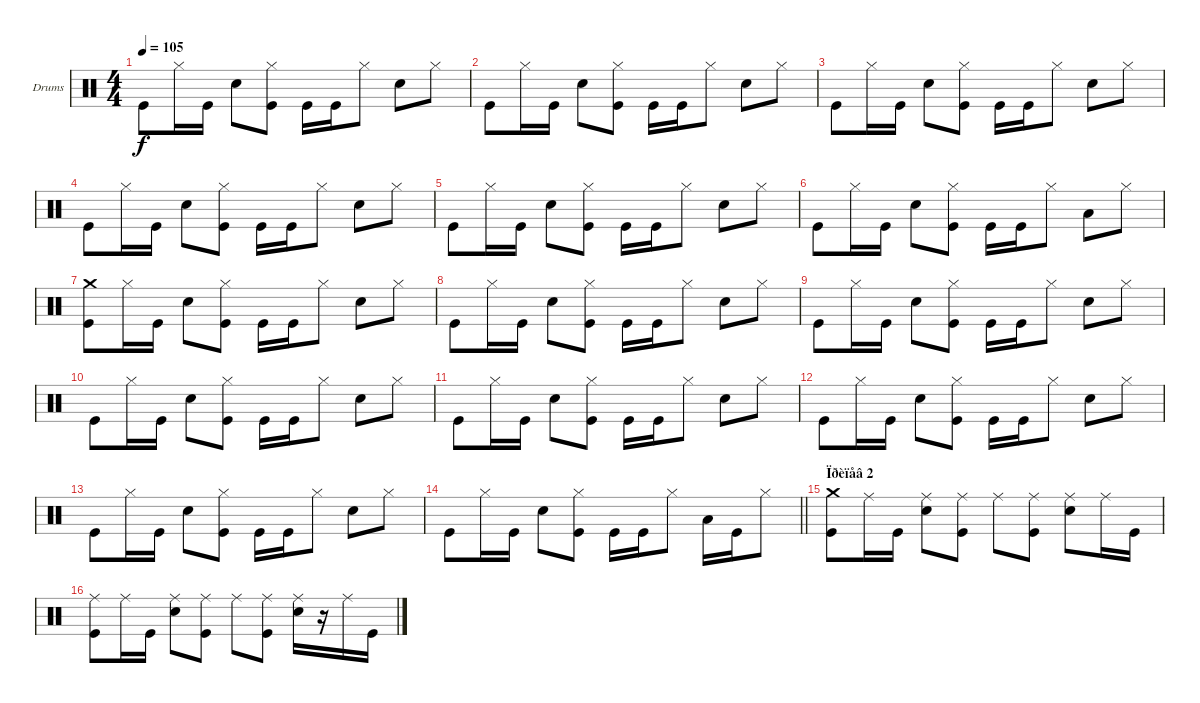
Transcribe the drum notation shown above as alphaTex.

\bracketExtendMode groupsimilarinstruments
\firstSystemTrackNameOrientation horizontal
\otherSystemsTrackNameOrientation horizontal
\track ("Drumkit" "Drums") {instrument percussion}
\staff {score}
\articulation defaults
\ts (4 4)
\tempo 105
\clef neutral
\ks c "Kick (hit)".8{dy f} "Hi-Hat (closed)".16 "Kick (hit)".16 "Snare (hit) 2".8
("Kick (hit)" "Hi-Hat (closed)").8 "Kick (hit)".16 "Kick (hit)".16 "Hi-Hat (closed)".8 "Snare (hit) 2".8 "Hi-Hat (closed)".8 |
"Kick (hit)".8 "Hi-Hat (closed)".16 "Kick (hit)".16 "Snare (hit) 2".8 ("Kick (hit)" "Hi-Hat (closed)").8 "Kick (hit)".16 "Kick (hit)".16 "Hi-Hat (closed)".8 "Snare (hit) 2".8 "Hi-Hat (closed)".8 |
"Kick (hit)".8 "Hi-Hat (closed)".16 "Kick (hit)".16 "Snare (hit) 2".8 ("Kick (hit)" "Hi-Hat (closed)").8 "Kick (hit)".16 "Kick (hit)".16 "Hi-Hat (closed)".8 "Snare (hit) 2".8 "Hi-Hat (closed)".8 |
"Kick (hit)".8 "Hi-Hat (closed)".16 "Kick (hit)".16 "Snare (hit) 2".8 ("Kick (hit)" "Hi-Hat (closed)").8 "Kick (hit)".16 "Kick (hit)".16 "Hi-Hat (closed)".8 "Snare (hit) 2".8 "Hi-Hat (closed)".8 |
"Kick (hit)".8 "Hi-Hat (closed)".16 "Kick (hit)".16 "Snare (hit) 2".8 ("Kick (hit)" "Hi-Hat (closed)").8 "Kick (hit)".16 "Kick (hit)".16 "Hi-Hat (closed)".8 "Snare (hit) 2".8 "Hi-Hat (closed)".8 |
"Kick (hit)".8 "Hi-Hat (closed)".16 "Kick (hit)".16 "Snare (hit) 2".8 ("Kick (hit)" "Hi-Hat (closed)").8 "Kick (hit)".16 "Kick (hit)".16 "Hi-Hat (closed)".8 "Low Tom (hit)".8 "Hi-Hat (closed)".8 |
("Kick (hit)" "Crash medium (hit)").8 "Hi-Hat (closed)".16 "Kick (hit)".16 "Snare (hit) 2".8 ("Kick (hit)" "Hi-Hat (closed)").8 "Kick (hit)".16 "Kick (hit)".16 "Hi-Hat (closed)".8 "Snare (hit) 2".8 "Hi-Hat (closed)".8 |
"Kick (hit)".8 "Hi-Hat (closed)".16 "Kick (hit)".16 "Snare (hit) 2".8 ("Kick (hit)" "Hi-Hat (closed)").8 "Kick (hit)".16 "Kick (hit)".16 "Hi-Hat (closed)".8 "Snare (hit) 2".8 "Hi-Hat (closed)".8 |
"Kick (hit)".8 "Hi-Hat (closed)".16 "Kick (hit)".16 "Snare (hit) 2".8 ("Kick (hit)" "Hi-Hat (closed)").8 "Kick (hit)".16 "Kick (hit)".16 "Hi-Hat (closed)".8 "Snare (hit) 2".8 "Hi-Hat (closed)".8 |
"Kick (hit)".8 "Hi-Hat (closed)".16 "Kick (hit)".16 "Snare (hit) 2".8 ("Kick (hit)" "Hi-Hat (closed)").8 "Kick (hit)".16 "Kick (hit)".16 "Hi-Hat (closed)".8 "Snare (hit) 2".8 "Hi-Hat (closed)".8 |
"Kick (hit)".8 "Hi-Hat (closed)".16 "Kick (hit)".16 "Snare (hit) 2".8 ("Kick (hit)" "Hi-Hat (closed)").8 "Kick (hit)".16 "Kick (hit)".16 "Hi-Hat (closed)".8 "Snare (hit) 2".8 "Hi-Hat (closed)".8 |
"Kick (hit)".8 "Hi-Hat (closed)".16 "Kick (hit)".16 "Snare (hit) 2".8 ("Kick (hit)" "Hi-Hat (closed)").8 "Kick (hit)".16 "Kick (hit)".16 "Hi-Hat (closed)".8 "Snare (hit) 2".8 "Hi-Hat (closed)".8 |
"Kick (hit)".8 "Hi-Hat (closed)".16 "Kick (hit)".16 "Snare (hit) 2".8 ("Kick (hit)" "Hi-Hat (closed)").8 "Kick (hit)".16 "Kick (hit)".16 "Hi-Hat (closed)".8 "Snare (hit) 2".8 "Hi-Hat (closed)".8 |
\barLineRight lightlight "Kick (hit)".8 "Hi-Hat (closed)".16 "Kick (hit)".16 "Snare (hit) 2".8
("Kick (hit)" "Hi-Hat (closed)").8 "Kick (hit)".16 "Kick (hit)".16 "Hi-Hat (closed)".8 "Low Tom (hit)".16 "Kick (hit)".16 "Hi-Hat (closed)".8 |
\section ("" "Ïðèïåâ 2")
("Kick (hit)" "Crash medium (hit)").8 "Ride (middle)".16 "Kick (hit)".16 ("Snare (hit) 2" "Ride (middle)").8 ("Kick (hit)" "Ride (middle)").8 "Ride (middle)".8 ("Kick (hit)" "Ride (middle)").8 ("Snare (hit) 2" "Ride (middle)").8 "Ride (middle)".16 "Kick (hit)".16 |
("Kick (hit)" "Ride (middle)").8 "Ride (middle)".16 "Kick (hit)".16 ("Snare (hit) 2" "Ride (middle)").8 ("Kick (hit)" "Ride (middle)").8 "Ride (middle)".8 ("Kick (hit)" "Ride (middle)").8 ("Snare (hit) 2" "Ride (middle)").16 r.16 "Ride (middle)".16 "Kick (hit)".16
